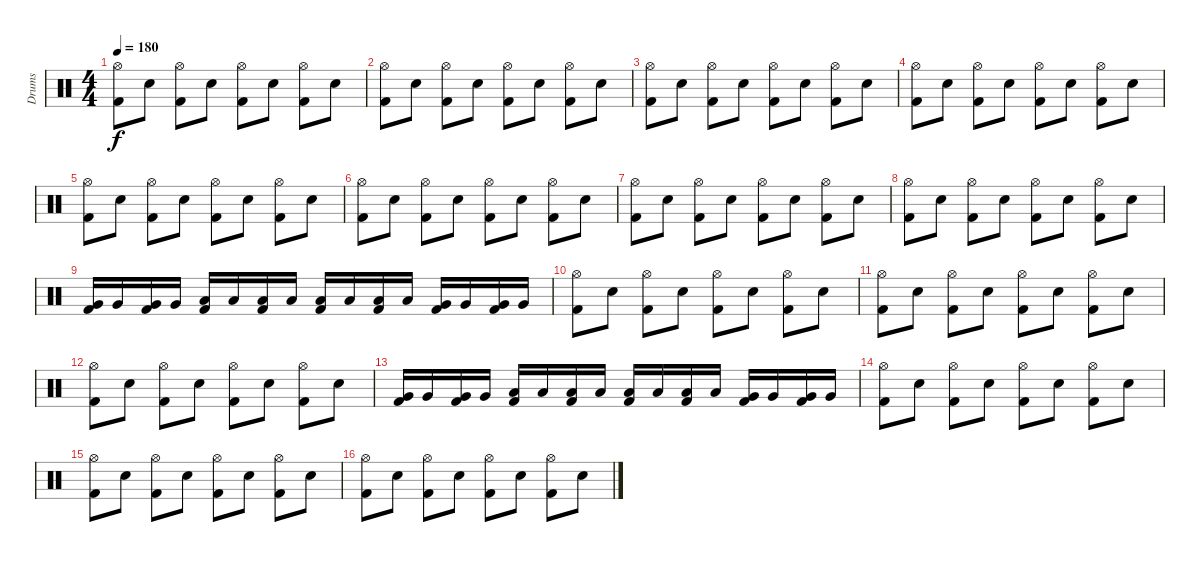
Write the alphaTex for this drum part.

\track ("Drums" "Drums") {instrument percussion}
\staff {score}
\articulation defaults
\ts (4 4)
\tempo 180
\clef neutral
\ks c
("Kick (hit) 2" "Hi-Hat (open)").8{dy f} "Electric Snare (hit)".8 ("Kick (hit) 2" "Hi-Hat (open)").8 "Electric Snare (hit)".8 ("Kick (hit) 2" "Hi-Hat (open)").8 "Electric Snare (hit)".8 ("Kick (hit) 2" "Hi-Hat (open)").8 "Electric Snare (hit)".8 |
("Kick (hit) 2" "Hi-Hat (open)").8 "Electric Snare (hit)".8 ("Kick (hit) 2" "Hi-Hat (open)").8 "Electric Snare (hit)".8 ("Kick (hit) 2" "Hi-Hat (open)").8 "Electric Snare (hit)".8 ("Kick (hit) 2" "Hi-Hat (open)").8 "Electric Snare (hit)".8 |
("Kick (hit) 2" "Hi-Hat (open)").8 "Electric Snare (hit)".8 ("Kick (hit) 2" "Hi-Hat (open)").8 "Electric Snare (hit)".8 ("Kick (hit) 2" "Hi-Hat (open)").8 "Electric Snare (hit)".8 ("Kick (hit) 2" "Hi-Hat (open)").8 "Electric Snare (hit)".8 |
("Kick (hit) 2" "Hi-Hat (open)").8 "Electric Snare (hit)".8 ("Kick (hit) 2" "Hi-Hat (open)").8 "Electric Snare (hit)".8 ("Kick (hit) 2" "Hi-Hat (open)").8 "Electric Snare (hit)".8 ("Kick (hit) 2" "Hi-Hat (open)").8 "Electric Snare (hit)".8 |
("Kick (hit) 2" "Hi-Hat (open)").8 "Electric Snare (hit)".8 ("Kick (hit) 2" "Hi-Hat (open)").8 "Electric Snare (hit)".8 ("Kick (hit) 2" "Hi-Hat (open)").8 "Electric Snare (hit)".8 ("Kick (hit) 2" "Hi-Hat (open)").8 "Electric Snare (hit)".8 |
("Kick (hit) 2" "Hi-Hat (open)").8 "Electric Snare (hit)".8 ("Kick (hit) 2" "Hi-Hat (open)").8 "Electric Snare (hit)".8 ("Kick (hit) 2" "Hi-Hat (open)").8 "Electric Snare (hit)".8 ("Kick (hit) 2" "Hi-Hat (open)").8 "Electric Snare (hit)".8 |
("Kick (hit) 2" "Hi-Hat (open)").8 "Electric Snare (hit)".8 ("Kick (hit) 2" "Hi-Hat (open)").8 "Electric Snare (hit)".8 ("Kick (hit) 2" "Hi-Hat (open)").8 "Electric Snare (hit)".8 ("Kick (hit) 2" "Hi-Hat (open)").8 "Electric Snare (hit)".8 |
("Kick (hit) 2" "Hi-Hat (open)").8 "Electric Snare (hit)".8 ("Kick (hit) 2" "Hi-Hat (open)").8 "Electric Snare (hit)".8 ("Kick (hit) 2" "Hi-Hat (open)").8 "Electric Snare (hit)".8 ("Kick (hit) 2" "Hi-Hat (open)").8 "Electric Snare (hit)".8 |
("Kick (hit) 2" "Very Low Tom (hit)").16 "Very Low Tom (hit)".16 ("Kick (hit) 2" "Very Low Tom (hit)").16 "Very Low Tom (hit)".16 ("Kick (hit) 2" "Low Tom (hit)").16 "Low Tom (hit)".16 ("Kick (hit) 2" "Low Tom (hit)").16 "Low Tom (hit)".16 ("Kick (hit) 2" "Low Floor Tom (hit)").16 "Low Floor Tom (hit)".16 ("Kick (hit) 2" "Low Floor Tom (hit)").16 "Low Floor Tom (hit)".16 ("Kick (hit) 2" "Very Low Tom (hit)").16 "Very Low Tom (hit)".16 ("Kick (hit) 2" "Very Low Tom (hit)").16 "Very Low Tom (hit)".16 |
("Kick (hit) 2" "Hi-Hat (open)").8 "Electric Snare (hit)".8 ("Kick (hit) 2" "Hi-Hat (open)").8 "Electric Snare (hit)".8 ("Kick (hit) 2" "Hi-Hat (open)").8 "Electric Snare (hit)".8 ("Kick (hit) 2" "Hi-Hat (open)").8 "Electric Snare (hit)".8 |
("Kick (hit) 2" "Hi-Hat (open)").8 "Electric Snare (hit)".8 ("Kick (hit) 2" "Hi-Hat (open)").8 "Electric Snare (hit)".8 ("Kick (hit) 2" "Hi-Hat (open)").8 "Electric Snare (hit)".8 ("Kick (hit) 2" "Hi-Hat (open)").8 "Electric Snare (hit)".8 |
("Kick (hit) 2" "Hi-Hat (open)").8 "Electric Snare (hit)".8 ("Kick (hit) 2" "Hi-Hat (open)").8 "Electric Snare (hit)".8 ("Kick (hit) 2" "Hi-Hat (open)").8 "Electric Snare (hit)".8 ("Kick (hit) 2" "Hi-Hat (open)").8 "Electric Snare (hit)".8 |
("Kick (hit) 2" "Very Low Tom (hit)").16 "Very Low Tom (hit)".16 ("Kick (hit) 2" "Very Low Tom (hit)").16 "Very Low Tom (hit)".16 ("Kick (hit) 2" "Low Tom (hit)").16 "Low Tom (hit)".16 ("Kick (hit) 2" "Low Tom (hit)").16 "Low Tom (hit)".16 ("Kick (hit) 2" "Low Floor Tom (hit)").16 "Low Floor Tom (hit)".16 ("Kick (hit) 2" "Low Floor Tom (hit)").16 "Low Floor Tom (hit)".16 ("Kick (hit) 2" "Very Low Tom (hit)").16 "Very Low Tom (hit)".16 ("Kick (hit) 2" "Very Low Tom (hit)").16 "Very Low Tom (hit)".16 |
("Kick (hit) 2" "Hi-Hat (open)").8 "Electric Snare (hit)".8 ("Kick (hit) 2" "Hi-Hat (open)").8 "Electric Snare (hit)".8 ("Kick (hit) 2" "Hi-Hat (open)").8 "Electric Snare (hit)".8 ("Kick (hit) 2" "Hi-Hat (open)").8 "Electric Snare (hit)".8 |
("Kick (hit) 2" "Hi-Hat (open)").8 "Electric Snare (hit)".8 ("Kick (hit) 2" "Hi-Hat (open)").8 "Electric Snare (hit)".8 ("Kick (hit) 2" "Hi-Hat (open)").8 "Electric Snare (hit)".8 ("Kick (hit) 2" "Hi-Hat (open)").8 "Electric Snare (hit)".8 |
("Kick (hit) 2" "Hi-Hat (open)").8 "Electric Snare (hit)".8 ("Kick (hit) 2" "Hi-Hat (open)").8 "Electric Snare (hit)".8 ("Kick (hit) 2" "Hi-Hat (open)").8 "Electric Snare (hit)".8 ("Kick (hit) 2" "Hi-Hat (open)").8 "Electric Snare (hit)".8
